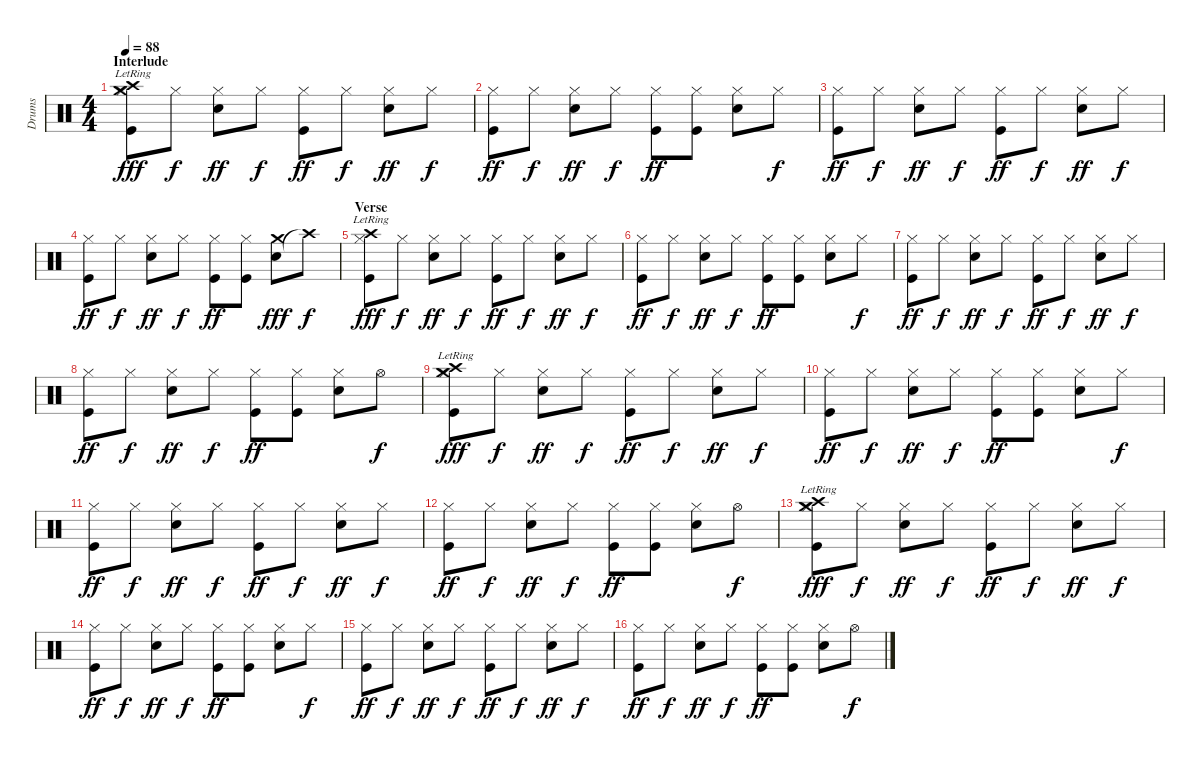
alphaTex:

\track ("Drums" "Drums") {instrument percussion}
\staff {score}
\articulation defaults
\ts (4 4)
\section ("" "Interlude")
\tempo 88
\clef neutral
\ks c
("Hi-Hat (closed)" "Kick (hit)" "Crash medium (hit)"{lr} "Crash high (hit)"{lr}).8{dy fff} "Hi-Hat (closed)".8{dy f} ("Hi-Hat (closed)" "Snare (hit) 2").8{dy ff} "Hi-Hat (closed)".8{dy f} ("Hi-Hat (closed)" "Kick (hit)").8{dy ff} "Hi-Hat (closed)".8{dy f} ("Hi-Hat (closed)" "Snare (hit) 2").8{dy ff} "Hi-Hat (closed)".8{dy f} |
("Hi-Hat (closed)" "Kick (hit)").8{dy ff} "Hi-Hat (closed)".8{dy f} ("Hi-Hat (closed)" "Snare (hit) 2").8{dy ff} "Hi-Hat (closed)".8{dy f} ("Hi-Hat (closed)" "Kick (hit)").8{dy ff} ("Hi-Hat (closed)" "Kick (hit)").8 ("Hi-Hat (closed)" "Snare (hit) 2").8 "Hi-Hat (closed)".8{dy f} |
("Hi-Hat (closed)" "Kick (hit)").8{dy ff} "Hi-Hat (closed)".8{dy f} ("Hi-Hat (closed)" "Snare (hit) 2").8{dy ff} "Hi-Hat (closed)".8{dy f} ("Hi-Hat (closed)" "Kick (hit)").8{dy ff} "Hi-Hat (closed)".8{dy f} ("Hi-Hat (closed)" "Snare (hit) 2").8{dy ff} "Hi-Hat (closed)".8{dy f} |
("Hi-Hat (closed)" "Kick (hit)").8{dy ff} "Hi-Hat (closed)".8{dy f} ("Hi-Hat (closed)" "Snare (hit) 2").8{dy ff} "Hi-Hat (closed)".8{dy f} ("Hi-Hat (closed)" "Kick (hit)").8{dy ff} ("Hi-Hat (closed)" "Kick (hit)").8 ("Snare (hit) 2" "Crash medium (hit)").8{dy fff} "Crash high (hit)"{t}.8{dy f} |
\section ("" "Verse")
("Hi-Hat (closed)" "Kick (hit)" "Crash high (hit)"{lr}).8{dy fff} "Hi-Hat (closed)".8{dy f} ("Hi-Hat (closed)" "Snare (hit) 2").8{dy ff} "Hi-Hat (closed)".8{dy f} ("Hi-Hat (closed)" "Kick (hit)").8{dy ff} "Hi-Hat (closed)".8{dy f} ("Hi-Hat (closed)" "Snare (hit) 2").8{dy ff} "Hi-Hat (closed)".8{dy f} |
("Hi-Hat (closed)" "Kick (hit)").8{dy ff} "Hi-Hat (closed)".8{dy f} ("Hi-Hat (closed)" "Snare (hit) 2").8{dy ff} "Hi-Hat (closed)".8{dy f} ("Hi-Hat (closed)" "Kick (hit)").8{dy ff} ("Hi-Hat (closed)" "Kick (hit)").8 ("Hi-Hat (closed)" "Snare (hit) 2").8 "Hi-Hat (closed)".8{dy f} |
("Hi-Hat (closed)" "Kick (hit)").8{dy ff} "Hi-Hat (closed)".8{dy f} ("Hi-Hat (closed)" "Snare (hit) 2").8{dy ff} "Hi-Hat (closed)".8{dy f} ("Hi-Hat (closed)" "Kick (hit)").8{dy ff} "Hi-Hat (closed)".8{dy f} ("Hi-Hat (closed)" "Snare (hit) 2").8{dy ff} "Hi-Hat (closed)".8{dy f} |
("Hi-Hat (closed)" "Kick (hit)").8{dy ff} "Hi-Hat (closed)".8{dy f} ("Hi-Hat (closed)" "Snare (hit) 2").8{dy ff} "Hi-Hat (closed)".8{dy f} ("Hi-Hat (closed)" "Kick (hit)").8{dy ff} ("Hi-Hat (closed)" "Kick (hit)").8 ("Hi-Hat (closed)" "Snare (hit) 2").8 "Hi-Hat (open)".8{dy f} |
("Hi-Hat (closed)" "Kick (hit)" "Crash medium (hit)"{lr} "Crash high (hit)"{lr}).8{dy fff} "Hi-Hat (closed)".8{dy f} ("Hi-Hat (closed)" "Snare (hit) 2").8{dy ff} "Hi-Hat (closed)".8{dy f} ("Hi-Hat (closed)" "Kick (hit)").8{dy ff} "Hi-Hat (closed)".8{dy f} ("Hi-Hat (closed)" "Snare (hit) 2").8{dy ff} "Hi-Hat (closed)".8{dy f} |
("Hi-Hat (closed)" "Kick (hit)").8{dy ff} "Hi-Hat (closed)".8{dy f} ("Hi-Hat (closed)" "Snare (hit) 2").8{dy ff} "Hi-Hat (closed)".8{dy f} ("Hi-Hat (closed)" "Kick (hit)").8{dy ff} ("Hi-Hat (closed)" "Kick (hit)").8 ("Hi-Hat (closed)" "Snare (hit) 2").8 "Hi-Hat (closed)".8{dy f} |
("Hi-Hat (closed)" "Kick (hit)").8{dy ff} "Hi-Hat (closed)".8{dy f} ("Hi-Hat (closed)" "Snare (hit) 2").8{dy ff} "Hi-Hat (closed)".8{dy f} ("Hi-Hat (closed)" "Kick (hit)").8{dy ff} "Hi-Hat (closed)".8{dy f} ("Hi-Hat (closed)" "Snare (hit) 2").8{dy ff} "Hi-Hat (closed)".8{dy f} |
("Hi-Hat (closed)" "Kick (hit)").8{dy ff} "Hi-Hat (closed)".8{dy f} ("Hi-Hat (closed)" "Snare (hit) 2").8{dy ff} "Hi-Hat (closed)".8{dy f} ("Hi-Hat (closed)" "Kick (hit)").8{dy ff} ("Hi-Hat (closed)" "Kick (hit)").8 ("Hi-Hat (closed)" "Snare (hit) 2").8 "Hi-Hat (open)".8{dy f} |
("Hi-Hat (closed)" "Kick (hit)" "Crash medium (hit)"{lr} "Crash high (hit)"{lr}).8{dy fff} "Hi-Hat (closed)".8{dy f} ("Hi-Hat (closed)" "Snare (hit) 2").8{dy ff} "Hi-Hat (closed)".8{dy f} ("Hi-Hat (closed)" "Kick (hit)").8{dy ff} "Hi-Hat (closed)".8{dy f} ("Hi-Hat (closed)" "Snare (hit) 2").8{dy ff} "Hi-Hat (closed)".8{dy f} |
("Hi-Hat (closed)" "Kick (hit)").8{dy ff} "Hi-Hat (closed)".8{dy f} ("Hi-Hat (closed)" "Snare (hit) 2").8{dy ff} "Hi-Hat (closed)".8{dy f} ("Hi-Hat (closed)" "Kick (hit)").8{dy ff} ("Hi-Hat (closed)" "Kick (hit)").8 ("Hi-Hat (closed)" "Snare (hit) 2").8 "Hi-Hat (closed)".8{dy f} |
("Hi-Hat (closed)" "Kick (hit)").8{dy ff} "Hi-Hat (closed)".8{dy f} ("Hi-Hat (closed)" "Snare (hit) 2").8{dy ff} "Hi-Hat (closed)".8{dy f} ("Hi-Hat (closed)" "Kick (hit)").8{dy ff} "Hi-Hat (closed)".8{dy f} ("Hi-Hat (closed)" "Snare (hit) 2").8{dy ff} "Hi-Hat (closed)".8{dy f} |
("Hi-Hat (closed)" "Kick (hit)").8{dy ff} "Hi-Hat (closed)".8{dy f} ("Hi-Hat (closed)" "Snare (hit) 2").8{dy ff} "Hi-Hat (closed)".8{dy f} ("Hi-Hat (closed)" "Kick (hit)").8{dy ff} ("Hi-Hat (closed)" "Kick (hit)").8 ("Hi-Hat (closed)" "Snare (hit) 2").8 "Hi-Hat (open)".8{dy f}
